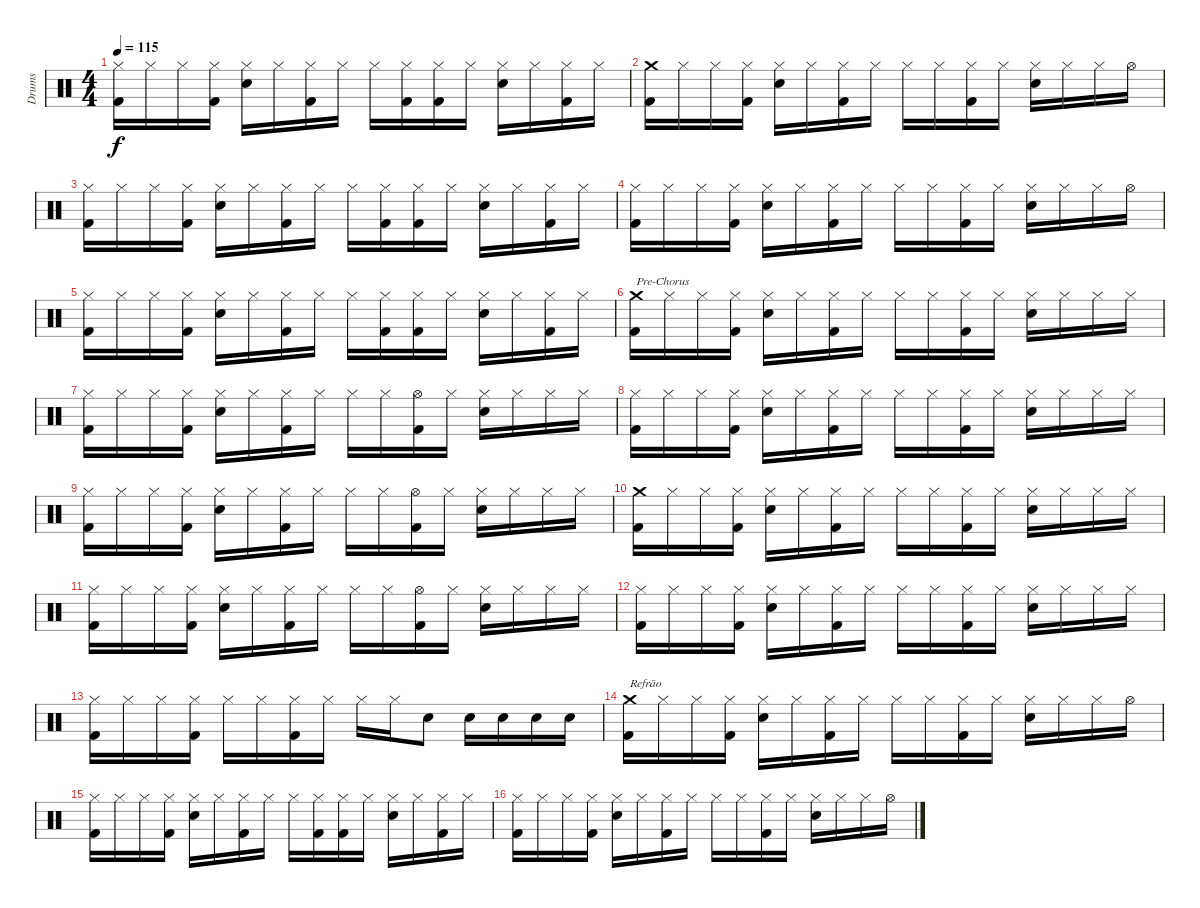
\track ("Drums" "Drums") {instrument percussion}
\staff {score}
\articulation defaults
\ts (4 4)
\tempo 115
\clef neutral
\ks c
("Hi-Hat (closed)" "Kick (hit) 2").16{dy f} "Hi-Hat (closed)".16 "Hi-Hat (closed)".16 ("Hi-Hat (closed)" "Kick (hit) 2").16 ("Hi-Hat (closed)" "Electric Snare (hit)").16 "Hi-Hat (closed)".16 ("Hi-Hat (closed)" "Kick (hit) 2").16 "Hi-Hat (closed)".16 "Hi-Hat (closed)".16 ("Hi-Hat (closed)" "Kick (hit) 2").16 ("Hi-Hat (closed)" "Kick (hit) 2").16 "Hi-Hat (closed)".16 ("Hi-Hat (closed)" "Electric Snare (hit)").16 "Hi-Hat (closed)".16 ("Hi-Hat (closed)" "Kick (hit) 2").16 "Hi-Hat (closed)".16 |
("Crash medium (hit)" "Kick (hit) 2").16 "Hi-Hat (closed)".16 "Hi-Hat (closed)".16 ("Hi-Hat (closed)" "Kick (hit) 2").16 ("Hi-Hat (closed)" "Electric Snare (hit)").16 "Hi-Hat (closed)".16 ("Hi-Hat (closed)" "Kick (hit) 2").16 "Hi-Hat (closed)".16 "Hi-Hat (closed)".16 "Hi-Hat (closed)".16 ("Hi-Hat (closed)" "Kick (hit) 2").16 "Hi-Hat (closed)".16 ("Hi-Hat (closed)" "Electric Snare (hit)").16 "Hi-Hat (closed)".16 "Hi-Hat (closed)".16 "Hi-Hat (open)".16 |
("Hi-Hat (closed)" "Kick (hit) 2").16 "Hi-Hat (closed)".16 "Hi-Hat (closed)".16 ("Hi-Hat (closed)" "Kick (hit) 2").16 ("Hi-Hat (closed)" "Electric Snare (hit)").16 "Hi-Hat (closed)".16 ("Hi-Hat (closed)" "Kick (hit) 2").16 "Hi-Hat (closed)".16 "Hi-Hat (closed)".16 ("Hi-Hat (closed)" "Kick (hit) 2").16 ("Hi-Hat (closed)" "Kick (hit) 2").16 "Hi-Hat (closed)".16 ("Hi-Hat (closed)" "Electric Snare (hit)").16 "Hi-Hat (closed)".16 ("Hi-Hat (closed)" "Kick (hit) 2").16 "Hi-Hat (closed)".16 |
("Hi-Hat (closed)" "Kick (hit) 2").16 "Hi-Hat (closed)".16 "Hi-Hat (closed)".16 ("Hi-Hat (closed)" "Kick (hit) 2").16 ("Hi-Hat (closed)" "Electric Snare (hit)").16 "Hi-Hat (closed)".16 ("Hi-Hat (closed)" "Kick (hit) 2").16 "Hi-Hat (closed)".16 "Hi-Hat (closed)".16 "Hi-Hat (closed)".16 ("Hi-Hat (closed)" "Kick (hit) 2").16 "Hi-Hat (closed)".16 ("Hi-Hat (closed)" "Electric Snare (hit)").16 "Hi-Hat (closed)".16 "Hi-Hat (closed)".16 "Hi-Hat (open)".16 |
("Hi-Hat (closed)" "Kick (hit) 2").16 "Hi-Hat (closed)".16 "Hi-Hat (closed)".16 ("Hi-Hat (closed)" "Kick (hit) 2").16 ("Hi-Hat (closed)" "Electric Snare (hit)").16 "Hi-Hat (closed)".16 ("Hi-Hat (closed)" "Kick (hit) 2").16 "Hi-Hat (closed)".16 "Hi-Hat (closed)".16 ("Hi-Hat (closed)" "Kick (hit) 2").16 ("Hi-Hat (closed)" "Kick (hit) 2").16 "Hi-Hat (closed)".16 ("Hi-Hat (closed)" "Electric Snare (hit)").16 "Hi-Hat (closed)".16 ("Hi-Hat (closed)" "Kick (hit) 2").16 "Hi-Hat (closed)".16 |
("Crash medium (hit)" "Kick (hit) 2").16{txt "Pre-Chorus"} "Hi-Hat (closed)".16 "Hi-Hat (closed)".16 ("Hi-Hat (closed)" "Kick (hit) 2").16 ("Hi-Hat (closed)" "Electric Snare (hit)").16 "Hi-Hat (closed)".16 ("Hi-Hat (closed)" "Kick (hit) 2").16 "Hi-Hat (closed)".16 "Hi-Hat (closed)".16 "Hi-Hat (closed)".16 ("Hi-Hat (closed)" "Kick (hit) 2").16 "Hi-Hat (closed)".16 ("Hi-Hat (closed)" "Electric Snare (hit)").16 "Hi-Hat (closed)".16 "Hi-Hat (closed)".16 "Hi-Hat (closed)".16 |
("Hi-Hat (closed)" "Kick (hit) 2").16 "Hi-Hat (closed)".16 "Hi-Hat (closed)".16 ("Hi-Hat (closed)" "Kick (hit) 2").16 ("Hi-Hat (closed)" "Electric Snare (hit)").16 "Hi-Hat (closed)".16 ("Hi-Hat (closed)" "Kick (hit) 2").16 "Hi-Hat (closed)".16 "Hi-Hat (closed)".16 "Hi-Hat (closed)".16 ("Hi-Hat (open)" "Kick (hit) 2").16 "Hi-Hat (closed)".16 ("Hi-Hat (closed)" "Electric Snare (hit)").16 "Hi-Hat (closed)".16 "Hi-Hat (closed)".16 "Hi-Hat (closed)".16 |
("Hi-Hat (closed)" "Kick (hit) 2").16 "Hi-Hat (closed)".16 "Hi-Hat (closed)".16 ("Hi-Hat (closed)" "Kick (hit) 2").16 ("Hi-Hat (closed)" "Electric Snare (hit)").16 "Hi-Hat (closed)".16 ("Hi-Hat (closed)" "Kick (hit) 2").16 "Hi-Hat (closed)".16 "Hi-Hat (closed)".16 "Hi-Hat (closed)".16 ("Hi-Hat (closed)" "Kick (hit) 2").16 "Hi-Hat (closed)".16 ("Hi-Hat (closed)" "Electric Snare (hit)").16 "Hi-Hat (closed)".16 "Hi-Hat (closed)".16 "Hi-Hat (closed)".16 |
("Hi-Hat (closed)" "Kick (hit) 2").16 "Hi-Hat (closed)".16 "Hi-Hat (closed)".16 ("Hi-Hat (closed)" "Kick (hit) 2").16 ("Hi-Hat (closed)" "Electric Snare (hit)").16 "Hi-Hat (closed)".16 ("Hi-Hat (closed)" "Kick (hit) 2").16 "Hi-Hat (closed)".16 "Hi-Hat (closed)".16 "Hi-Hat (closed)".16 ("Hi-Hat (open)" "Kick (hit) 2").16 "Hi-Hat (closed)".16 ("Hi-Hat (closed)" "Electric Snare (hit)").16 "Hi-Hat (closed)".16 "Hi-Hat (closed)".16 "Hi-Hat (closed)".16 |
("Crash medium (hit)" "Kick (hit) 2").16 "Hi-Hat (closed)".16 "Hi-Hat (closed)".16 ("Hi-Hat (closed)" "Kick (hit) 2").16 ("Hi-Hat (closed)" "Electric Snare (hit)").16 "Hi-Hat (closed)".16 ("Hi-Hat (closed)" "Kick (hit) 2").16 "Hi-Hat (closed)".16 "Hi-Hat (closed)".16 "Hi-Hat (closed)".16 ("Hi-Hat (closed)" "Kick (hit) 2").16 "Hi-Hat (closed)".16 ("Hi-Hat (closed)" "Electric Snare (hit)").16 "Hi-Hat (closed)".16 "Hi-Hat (closed)".16 "Hi-Hat (closed)".16 |
("Hi-Hat (closed)" "Kick (hit) 2").16 "Hi-Hat (closed)".16 "Hi-Hat (closed)".16 ("Hi-Hat (closed)" "Kick (hit) 2").16 ("Hi-Hat (closed)" "Electric Snare (hit)").16 "Hi-Hat (closed)".16 ("Hi-Hat (closed)" "Kick (hit) 2").16 "Hi-Hat (closed)".16 "Hi-Hat (closed)".16 "Hi-Hat (closed)".16 ("Hi-Hat (open)" "Kick (hit) 2").16 "Hi-Hat (closed)".16 ("Hi-Hat (closed)" "Electric Snare (hit)").16 "Hi-Hat (closed)".16 "Hi-Hat (closed)".16 "Hi-Hat (closed)".16 |
("Hi-Hat (closed)" "Kick (hit) 2").16 "Hi-Hat (closed)".16 "Hi-Hat (closed)".16 ("Hi-Hat (closed)" "Kick (hit) 2").16 ("Hi-Hat (closed)" "Electric Snare (hit)").16 "Hi-Hat (closed)".16 ("Hi-Hat (closed)" "Kick (hit) 2").16 "Hi-Hat (closed)".16 "Hi-Hat (closed)".16 "Hi-Hat (closed)".16 ("Hi-Hat (closed)" "Kick (hit) 2").16 "Hi-Hat (closed)".16 ("Hi-Hat (closed)" "Electric Snare (hit)").16 "Hi-Hat (closed)".16 "Hi-Hat (closed)".16 "Hi-Hat (closed)".16 |
("Hi-Hat (closed)" "Kick (hit) 2").16 "Hi-Hat (closed)".16 "Hi-Hat (closed)".16 ("Hi-Hat (closed)" "Kick (hit) 2").16 "Hi-Hat (closed)".16 "Hi-Hat (closed)".16 ("Hi-Hat (closed)" "Kick (hit) 2").16 "Hi-Hat (closed)".16 "Hi-Hat (closed)".16 "Hi-Hat (closed)".16 "Electric Snare (hit)".8 "Electric Snare (hit)".16 "Electric Snare (hit)".16 "Electric Snare (hit)".16 "Electric Snare (hit)".16 |
("Crash medium (hit)" "Kick (hit) 2").16{txt "Refrão"} "Hi-Hat (closed)".16 "Hi-Hat (closed)".16 ("Hi-Hat (closed)" "Kick (hit) 2").16 ("Hi-Hat (closed)" "Electric Snare (hit)").16 "Hi-Hat (closed)".16 ("Hi-Hat (closed)" "Kick (hit) 2").16 "Hi-Hat (closed)".16 "Hi-Hat (closed)".16 "Hi-Hat (closed)".16 ("Hi-Hat (closed)" "Kick (hit) 2").16 "Hi-Hat (closed)".16 ("Hi-Hat (closed)" "Electric Snare (hit)").16 "Hi-Hat (closed)".16 "Hi-Hat (closed)".16 "Hi-Hat (open)".16 |
("Hi-Hat (closed)" "Kick (hit) 2").16 "Hi-Hat (closed)".16 "Hi-Hat (closed)".16 ("Hi-Hat (closed)" "Kick (hit) 2").16 ("Hi-Hat (closed)" "Electric Snare (hit)").16 "Hi-Hat (closed)".16 ("Hi-Hat (closed)" "Kick (hit) 2").16 "Hi-Hat (closed)".16 "Hi-Hat (closed)".16 ("Hi-Hat (closed)" "Kick (hit) 2").16 ("Hi-Hat (closed)" "Kick (hit) 2").16 "Hi-Hat (closed)".16 ("Hi-Hat (closed)" "Electric Snare (hit)").16 "Hi-Hat (closed)".16 ("Hi-Hat (closed)" "Kick (hit) 2").16 "Hi-Hat (closed)".16 |
("Hi-Hat (closed)" "Kick (hit) 2").16 "Hi-Hat (closed)".16 "Hi-Hat (closed)".16 ("Hi-Hat (closed)" "Kick (hit) 2").16 ("Hi-Hat (closed)" "Electric Snare (hit)").16 "Hi-Hat (closed)".16 ("Hi-Hat (closed)" "Kick (hit) 2").16 "Hi-Hat (closed)".16 "Hi-Hat (closed)".16 "Hi-Hat (closed)".16 ("Hi-Hat (closed)" "Kick (hit) 2").16 "Hi-Hat (closed)".16 ("Hi-Hat (closed)" "Electric Snare (hit)").16 "Hi-Hat (closed)".16 "Hi-Hat (closed)".16 "Hi-Hat (open)".16
